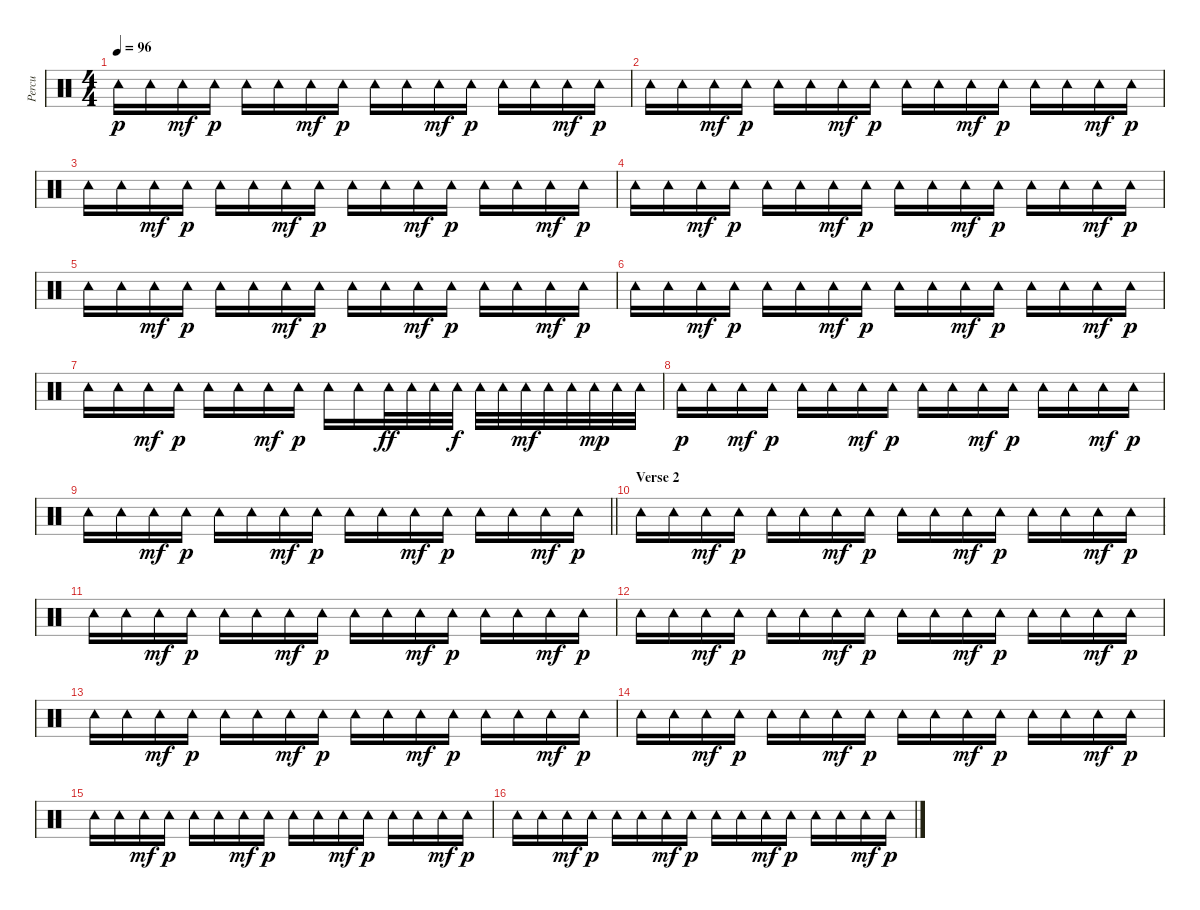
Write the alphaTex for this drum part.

\track ("Percu" "Percu") {instrument percussion}
\staff {score}
\articulation defaults
\ts (4 4)
\tempo 96
\clef neutral
\ks c "Tambourine (hit)".16{dy p} "Tambourine (hit)".16 "Tambourine (hit)".16{dy mf} "Tambourine (hit)".16{dy p} "Tambourine (hit)".16 "Tambourine (hit)".16 "Tambourine (hit)".16{dy mf} "Tambourine (hit)".16{dy p} "Tambourine (hit)".16 "Tambourine (hit)".16 "Tambourine (hit)".16{dy mf} "Tambourine (hit)".16{dy p} "Tambourine (hit)".16 "Tambourine (hit)".16 "Tambourine (hit)".16{dy mf} "Tambourine (hit)".16{dy p}
|
"Tambourine (hit)".16 "Tambourine (hit)".16 "Tambourine (hit)".16{dy mf} "Tambourine (hit)".16{dy p} "Tambourine (hit)".16 "Tambourine (hit)".16 "Tambourine (hit)".16{dy mf} "Tambourine (hit)".16{dy p} "Tambourine (hit)".16 "Tambourine (hit)".16 "Tambourine (hit)".16{dy mf} "Tambourine (hit)".16{dy p} "Tambourine (hit)".16 "Tambourine (hit)".16 "Tambourine (hit)".16{dy mf} "Tambourine (hit)".16{dy p} |
"Tambourine (hit)".16 "Tambourine (hit)".16 "Tambourine (hit)".16{dy mf} "Tambourine (hit)".16{dy p} "Tambourine (hit)".16 "Tambourine (hit)".16 "Tambourine (hit)".16{dy mf} "Tambourine (hit)".16{dy p} "Tambourine (hit)".16 "Tambourine (hit)".16 "Tambourine (hit)".16{dy mf} "Tambourine (hit)".16{dy p} "Tambourine (hit)".16 "Tambourine (hit)".16 "Tambourine (hit)".16{dy mf} "Tambourine (hit)".16{dy p} |
"Tambourine (hit)".16 "Tambourine (hit)".16 "Tambourine (hit)".16{dy mf} "Tambourine (hit)".16{dy p} "Tambourine (hit)".16 "Tambourine (hit)".16 "Tambourine (hit)".16{dy mf} "Tambourine (hit)".16{dy p} "Tambourine (hit)".16 "Tambourine (hit)".16 "Tambourine (hit)".16{dy mf} "Tambourine (hit)".16{dy p} "Tambourine (hit)".16 "Tambourine (hit)".16 "Tambourine (hit)".16{dy mf} "Tambourine (hit)".16{dy p} |
"Tambourine (hit)".16 "Tambourine (hit)".16 "Tambourine (hit)".16{dy mf} "Tambourine (hit)".16{dy p} "Tambourine (hit)".16 "Tambourine (hit)".16 "Tambourine (hit)".16{dy mf} "Tambourine (hit)".16{dy p} "Tambourine (hit)".16 "Tambourine (hit)".16 "Tambourine (hit)".16{dy mf} "Tambourine (hit)".16{dy p} "Tambourine (hit)".16 "Tambourine (hit)".16 "Tambourine (hit)".16{dy mf} "Tambourine (hit)".16{dy p} |
"Tambourine (hit)".16 "Tambourine (hit)".16 "Tambourine (hit)".16{dy mf} "Tambourine (hit)".16{dy p} "Tambourine (hit)".16 "Tambourine (hit)".16 "Tambourine (hit)".16{dy mf} "Tambourine (hit)".16{dy p} "Tambourine (hit)".16 "Tambourine (hit)".16 "Tambourine (hit)".16{dy mf} "Tambourine (hit)".16{dy p} "Tambourine (hit)".16 "Tambourine (hit)".16 "Tambourine (hit)".16{dy mf} "Tambourine (hit)".16{dy p} |
"Tambourine (hit)".16 "Tambourine (hit)".16 "Tambourine (hit)".16{dy mf} "Tambourine (hit)".16{dy p} "Tambourine (hit)".16 "Tambourine (hit)".16 "Tambourine (hit)".16{dy mf} "Tambourine (hit)".16{dy p} "Tambourine (hit)".16 "Tambourine (hit)".16 "Tambourine (hit)".32{dy ff} "Tambourine (hit)".32 "Tambourine (hit)".32 "Tambourine (hit)".32{dy f} "Tambourine (hit)".32 "Tambourine (hit)".32 "Tambourine (hit)".32{dy mf} "Tambourine (hit)".32 "Tambourine (hit)".32 "Tambourine (hit)".32{dy mp} "Tambourine (hit)".32 "Tambourine (hit)".32 |
"Tambourine (hit)".16{dy p} "Tambourine (hit)".16 "Tambourine (hit)".16{dy mf} "Tambourine (hit)".16{dy p} "Tambourine (hit)".16 "Tambourine (hit)".16 "Tambourine (hit)".16{dy mf} "Tambourine (hit)".16{dy p} "Tambourine (hit)".16 "Tambourine (hit)".16 "Tambourine (hit)".16{dy mf} "Tambourine (hit)".16{dy p} "Tambourine (hit)".16 "Tambourine (hit)".16 "Tambourine (hit)".16{dy mf} "Tambourine (hit)".16{dy p} |
\barLineRight lightlight "Tambourine (hit)".16 "Tambourine (hit)".16 "Tambourine (hit)".16{dy mf} "Tambourine (hit)".16{dy p} "Tambourine (hit)".16 "Tambourine (hit)".16 "Tambourine (hit)".16{dy mf} "Tambourine (hit)".16{dy p} "Tambourine (hit)".16 "Tambourine (hit)".16 "Tambourine (hit)".16{dy mf} "Tambourine (hit)".16{dy p} "Tambourine (hit)".16 "Tambourine (hit)".16 "Tambourine (hit)".16{dy mf} "Tambourine (hit)".16{dy p}
|
\section ("" "Verse 2")
"Tambourine (hit)".16 "Tambourine (hit)".16 "Tambourine (hit)".16{dy mf} "Tambourine (hit)".16{dy p} "Tambourine (hit)".16 "Tambourine (hit)".16 "Tambourine (hit)".16{dy mf} "Tambourine (hit)".16{dy p} "Tambourine (hit)".16 "Tambourine (hit)".16 "Tambourine (hit)".16{dy mf} "Tambourine (hit)".16{dy p} "Tambourine (hit)".16 "Tambourine (hit)".16 "Tambourine (hit)".16{dy mf} "Tambourine (hit)".16{dy p} |
"Tambourine (hit)".16 "Tambourine (hit)".16 "Tambourine (hit)".16{dy mf} "Tambourine (hit)".16{dy p} "Tambourine (hit)".16 "Tambourine (hit)".16 "Tambourine (hit)".16{dy mf} "Tambourine (hit)".16{dy p} "Tambourine (hit)".16 "Tambourine (hit)".16 "Tambourine (hit)".16{dy mf} "Tambourine (hit)".16{dy p} "Tambourine (hit)".16 "Tambourine (hit)".16 "Tambourine (hit)".16{dy mf} "Tambourine (hit)".16{dy p} |
"Tambourine (hit)".16 "Tambourine (hit)".16 "Tambourine (hit)".16{dy mf} "Tambourine (hit)".16{dy p} "Tambourine (hit)".16 "Tambourine (hit)".16 "Tambourine (hit)".16{dy mf} "Tambourine (hit)".16{dy p} "Tambourine (hit)".16 "Tambourine (hit)".16 "Tambourine (hit)".16{dy mf} "Tambourine (hit)".16{dy p} "Tambourine (hit)".16 "Tambourine (hit)".16 "Tambourine (hit)".16{dy mf} "Tambourine (hit)".16{dy p} |
"Tambourine (hit)".16 "Tambourine (hit)".16 "Tambourine (hit)".16{dy mf} "Tambourine (hit)".16{dy p} "Tambourine (hit)".16 "Tambourine (hit)".16 "Tambourine (hit)".16{dy mf} "Tambourine (hit)".16{dy p} "Tambourine (hit)".16 "Tambourine (hit)".16 "Tambourine (hit)".16{dy mf} "Tambourine (hit)".16{dy p} "Tambourine (hit)".16 "Tambourine (hit)".16 "Tambourine (hit)".16{dy mf} "Tambourine (hit)".16{dy p} |
"Tambourine (hit)".16 "Tambourine (hit)".16 "Tambourine (hit)".16{dy mf} "Tambourine (hit)".16{dy p} "Tambourine (hit)".16 "Tambourine (hit)".16 "Tambourine (hit)".16{dy mf} "Tambourine (hit)".16{dy p} "Tambourine (hit)".16 "Tambourine (hit)".16 "Tambourine (hit)".16{dy mf} "Tambourine (hit)".16{dy p} "Tambourine (hit)".16 "Tambourine (hit)".16 "Tambourine (hit)".16{dy mf} "Tambourine (hit)".16{dy p} |
"Tambourine (hit)".16 "Tambourine (hit)".16 "Tambourine (hit)".16{dy mf} "Tambourine (hit)".16{dy p} "Tambourine (hit)".16 "Tambourine (hit)".16 "Tambourine (hit)".16{dy mf} "Tambourine (hit)".16{dy p} "Tambourine (hit)".16 "Tambourine (hit)".16 "Tambourine (hit)".16{dy mf} "Tambourine (hit)".16{dy p} "Tambourine (hit)".16 "Tambourine (hit)".16 "Tambourine (hit)".16{dy mf} "Tambourine (hit)".16{dy p} |
"Tambourine (hit)".16 "Tambourine (hit)".16 "Tambourine (hit)".16{dy mf} "Tambourine (hit)".16{dy p} "Tambourine (hit)".16 "Tambourine (hit)".16 "Tambourine (hit)".16{dy mf} "Tambourine (hit)".16{dy p} "Tambourine (hit)".16 "Tambourine (hit)".16 "Tambourine (hit)".16{dy mf} "Tambourine (hit)".16{dy p} "Tambourine (hit)".16 "Tambourine (hit)".16 "Tambourine (hit)".16{dy mf} "Tambourine (hit)".16{dy p}
